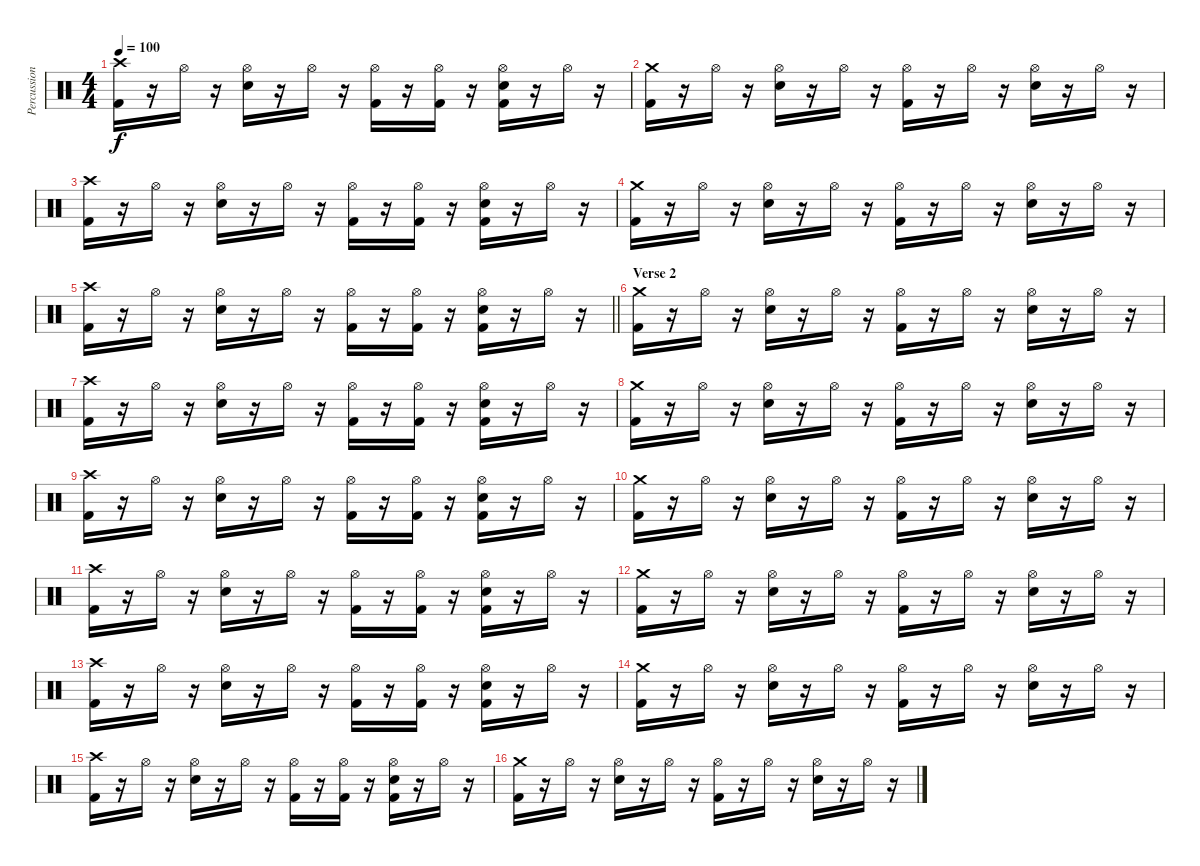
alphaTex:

\track ("Percussion" "Percussion") {instrument percussion}
\staff {score}
\articulation defaults
\ts (4 4)
\tempo 100
\clef neutral
\ks c
("Crash high (hit)" "Kick (hit) 2").16{dy f} r.16 "Hi-Hat (open)".16 r.16 ("Hi-Hat (open)" "Electric Snare (hit)").16 r.16 "Hi-Hat (open)".16 r.16 ("Hi-Hat (open)" "Kick (hit) 2").16 r.16 ("Hi-Hat (open)" "Kick (hit) 2").16 r.16 ("Hi-Hat (open)" "Electric Snare (hit)" "Kick (hit) 2").16 r.16 "Hi-Hat (open)".16 r.16 |
("Crash medium (hit)" "Kick (hit) 2").16 r.16 "Hi-Hat (open)".16 r.16 ("Hi-Hat (open)" "Electric Snare (hit)").16 r.16 "Hi-Hat (open)".16 r.16 ("Hi-Hat (open)" "Kick (hit) 2").16 r.16 "Hi-Hat (open)".16 r.16 ("Hi-Hat (open)" "Electric Snare (hit)").16 r.16 "Hi-Hat (open)".16 r.16 |
("Crash high (hit)" "Kick (hit) 2").16 r.16 "Hi-Hat (open)".16 r.16 ("Hi-Hat (open)" "Electric Snare (hit)").16 r.16 "Hi-Hat (open)".16 r.16 ("Hi-Hat (open)" "Kick (hit) 2").16 r.16 ("Hi-Hat (open)" "Kick (hit) 2").16 r.16 ("Hi-Hat (open)" "Electric Snare (hit)" "Kick (hit) 2").16 r.16 "Hi-Hat (open)".16 r.16 |
("Crash medium (hit)" "Kick (hit) 2").16 r.16 "Hi-Hat (open)".16 r.16 ("Hi-Hat (open)" "Electric Snare (hit)").16 r.16 "Hi-Hat (open)".16 r.16 ("Hi-Hat (open)" "Kick (hit) 2").16 r.16 "Hi-Hat (open)".16 r.16 ("Hi-Hat (open)" "Electric Snare (hit)").16 r.16 "Hi-Hat (open)".16 r.16 |
\barLineRight lightlight
("Crash high (hit)" "Kick (hit) 2").16 r.16 "Hi-Hat (open)".16 r.16 ("Hi-Hat (open)" "Electric Snare (hit)").16 r.16 "Hi-Hat (open)".16 r.16 ("Hi-Hat (open)" "Kick (hit) 2").16 r.16 ("Hi-Hat (open)" "Kick (hit) 2").16 r.16 ("Hi-Hat (open)" "Electric Snare (hit)" "Kick (hit) 2").16 r.16 "Hi-Hat (open)".16 r.16 |
\section ("" "Verse 2")
("Crash medium (hit)" "Kick (hit) 2").16 r.16 "Hi-Hat (open)".16 r.16 ("Hi-Hat (open)" "Electric Snare (hit)").16 r.16 "Hi-Hat (open)".16 r.16 ("Hi-Hat (open)" "Kick (hit) 2").16 r.16 "Hi-Hat (open)".16 r.16 ("Hi-Hat (open)" "Electric Snare (hit)").16 r.16 "Hi-Hat (open)".16 r.16 |
("Crash high (hit)" "Kick (hit) 2").16 r.16 "Hi-Hat (open)".16 r.16 ("Hi-Hat (open)" "Electric Snare (hit)").16 r.16 "Hi-Hat (open)".16 r.16 ("Hi-Hat (open)" "Kick (hit) 2").16 r.16 ("Hi-Hat (open)" "Kick (hit) 2").16 r.16 ("Hi-Hat (open)" "Electric Snare (hit)" "Kick (hit) 2").16 r.16 "Hi-Hat (open)".16 r.16 |
("Crash medium (hit)" "Kick (hit) 2").16 r.16 "Hi-Hat (open)".16 r.16 ("Hi-Hat (open)" "Electric Snare (hit)").16 r.16 "Hi-Hat (open)".16 r.16 ("Hi-Hat (open)" "Kick (hit) 2").16 r.16 "Hi-Hat (open)".16 r.16 ("Hi-Hat (open)" "Electric Snare (hit)").16 r.16 "Hi-Hat (open)".16 r.16 |
("Crash high (hit)" "Kick (hit) 2").16 r.16 "Hi-Hat (open)".16 r.16 ("Hi-Hat (open)" "Electric Snare (hit)").16 r.16 "Hi-Hat (open)".16 r.16 ("Hi-Hat (open)" "Kick (hit) 2").16 r.16 ("Hi-Hat (open)" "Kick (hit) 2").16 r.16 ("Hi-Hat (open)" "Electric Snare (hit)" "Kick (hit) 2").16 r.16 "Hi-Hat (open)".16 r.16 |
("Crash medium (hit)" "Kick (hit) 2").16 r.16 "Hi-Hat (open)".16 r.16 ("Hi-Hat (open)" "Electric Snare (hit)").16 r.16 "Hi-Hat (open)".16 r.16 ("Hi-Hat (open)" "Kick (hit) 2").16 r.16 "Hi-Hat (open)".16 r.16 ("Hi-Hat (open)" "Electric Snare (hit)").16 r.16 "Hi-Hat (open)".16 r.16 |
("Crash high (hit)" "Kick (hit) 2").16 r.16 "Hi-Hat (open)".16 r.16 ("Hi-Hat (open)" "Electric Snare (hit)").16 r.16 "Hi-Hat (open)".16 r.16 ("Hi-Hat (open)" "Kick (hit) 2").16 r.16 ("Hi-Hat (open)" "Kick (hit) 2").16 r.16 ("Hi-Hat (open)" "Electric Snare (hit)" "Kick (hit) 2").16 r.16 "Hi-Hat (open)".16 r.16 |
("Crash medium (hit)" "Kick (hit) 2").16 r.16 "Hi-Hat (open)".16 r.16 ("Hi-Hat (open)" "Electric Snare (hit)").16 r.16 "Hi-Hat (open)".16 r.16 ("Hi-Hat (open)" "Kick (hit) 2").16 r.16 "Hi-Hat (open)".16 r.16 ("Hi-Hat (open)" "Electric Snare (hit)").16 r.16 "Hi-Hat (open)".16 r.16 |
("Crash high (hit)" "Kick (hit) 2").16 r.16 "Hi-Hat (open)".16 r.16 ("Hi-Hat (open)" "Electric Snare (hit)").16 r.16 "Hi-Hat (open)".16 r.16 ("Hi-Hat (open)" "Kick (hit) 2").16 r.16 ("Hi-Hat (open)" "Kick (hit) 2").16 r.16 ("Hi-Hat (open)" "Electric Snare (hit)" "Kick (hit) 2").16 r.16 "Hi-Hat (open)".16 r.16 |
("Crash medium (hit)" "Kick (hit) 2").16 r.16 "Hi-Hat (open)".16 r.16 ("Hi-Hat (open)" "Electric Snare (hit)").16 r.16 "Hi-Hat (open)".16 r.16 ("Hi-Hat (open)" "Kick (hit) 2").16 r.16 "Hi-Hat (open)".16 r.16 ("Hi-Hat (open)" "Electric Snare (hit)").16 r.16 "Hi-Hat (open)".16 r.16 |
("Crash high (hit)" "Kick (hit) 2").16 r.16 "Hi-Hat (open)".16 r.16 ("Hi-Hat (open)" "Electric Snare (hit)").16 r.16 "Hi-Hat (open)".16 r.16 ("Hi-Hat (open)" "Kick (hit) 2").16 r.16 ("Hi-Hat (open)" "Kick (hit) 2").16 r.16 ("Hi-Hat (open)" "Electric Snare (hit)" "Kick (hit) 2").16 r.16 "Hi-Hat (open)".16 r.16 |
("Crash medium (hit)" "Kick (hit) 2").16 r.16 "Hi-Hat (open)".16 r.16 ("Hi-Hat (open)" "Electric Snare (hit)").16 r.16 "Hi-Hat (open)".16 r.16 ("Hi-Hat (open)" "Kick (hit) 2").16 r.16 "Hi-Hat (open)".16 r.16 ("Hi-Hat (open)" "Electric Snare (hit)").16 r.16 "Hi-Hat (open)".16 r.16
